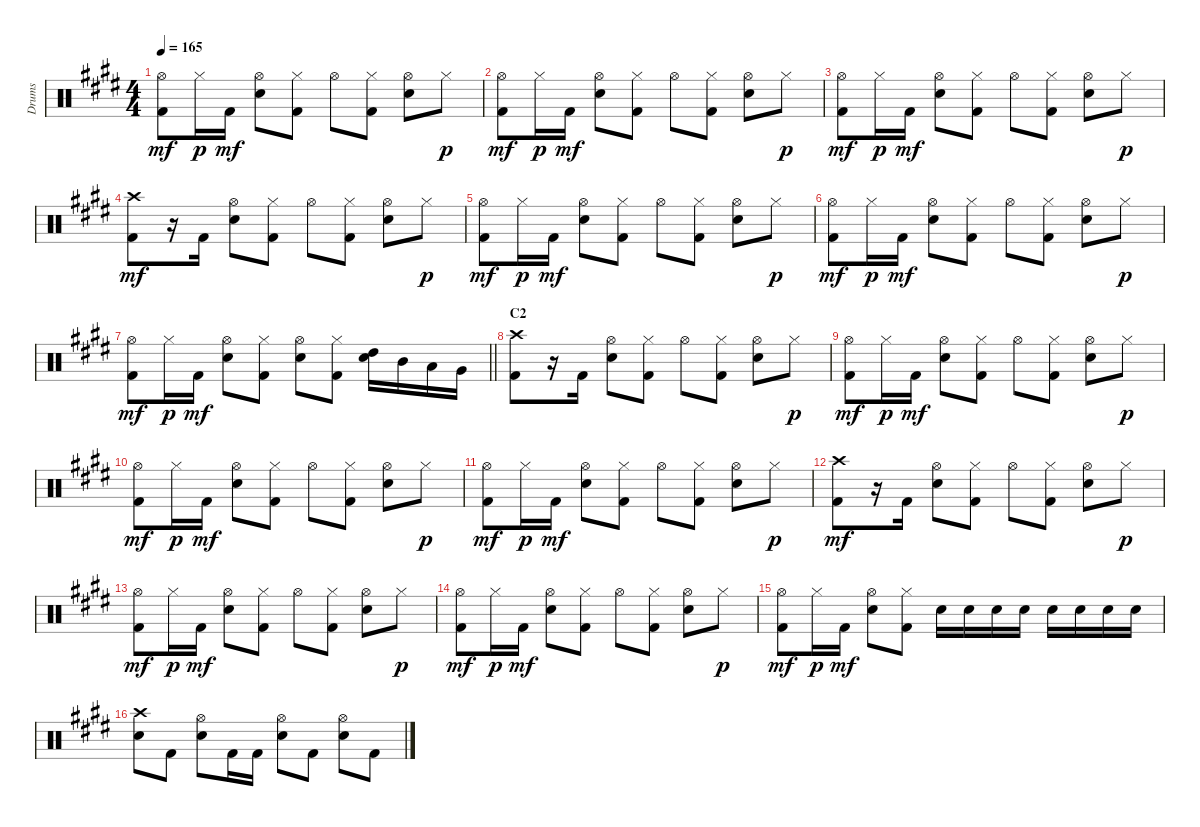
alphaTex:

\track ("Drums" "Drums") {instrument percussion}
\staff {score}
\articulation defaults
\ts (4 4)
\tempo 165
\clef neutral
\ks e
("Hi-Hat (open)" "Kick (hit) 2").8{dy mf} "Hi-Hat (closed)".16{dy p} "Kick (hit) 2".16{dy mf} ("Hi-Hat (open)" "Electric Snare (hit)").8 ("Hi-Hat (closed)" "Kick (hit) 2").8 "Hi-Hat (open)".8 ("Hi-Hat (closed)" "Kick (hit) 2").8 ("Hi-Hat (open)" "Electric Snare (hit)").8 "Hi-Hat (closed)".8{dy p} |
("Hi-Hat (open)" "Kick (hit) 2").8{dy mf} "Hi-Hat (closed)".16{dy p} "Kick (hit) 2".16{dy mf} ("Hi-Hat (open)" "Electric Snare (hit)").8 ("Hi-Hat (closed)" "Kick (hit) 2").8 "Hi-Hat (open)".8 ("Hi-Hat (closed)" "Kick (hit) 2").8 ("Hi-Hat (open)" "Electric Snare (hit)").8 "Hi-Hat (closed)".8{dy p} |
("Hi-Hat (open)" "Kick (hit) 2").8{dy mf} "Hi-Hat (closed)".16{dy p} "Kick (hit) 2".16{dy mf} ("Hi-Hat (open)" "Electric Snare (hit)").8 ("Hi-Hat (closed)" "Kick (hit) 2").8 "Hi-Hat (open)".8 ("Hi-Hat (closed)" "Kick (hit) 2").8 ("Hi-Hat (open)" "Electric Snare (hit)").8 "Hi-Hat (closed)".8{dy p} |
("Crash high (hit)" "Kick (hit) 2").8{dy mf} r.16 "Kick (hit) 2".16 ("Hi-Hat (open)" "Electric Snare (hit)").8 ("Hi-Hat (closed)" "Kick (hit) 2").8 "Hi-Hat (open)".8 ("Hi-Hat (closed)" "Kick (hit) 2").8 ("Hi-Hat (open)" "Electric Snare (hit)").8 "Hi-Hat (closed)".8{dy p} |
("Hi-Hat (open)" "Kick (hit) 2").8{dy mf} "Hi-Hat (closed)".16{dy p} "Kick (hit) 2".16{dy mf} ("Hi-Hat (open)" "Electric Snare (hit)").8 ("Hi-Hat (closed)" "Kick (hit) 2").8 "Hi-Hat (open)".8 ("Hi-Hat (closed)" "Kick (hit) 2").8 ("Hi-Hat (open)" "Electric Snare (hit)").8 "Hi-Hat (closed)".8{dy p} |
("Hi-Hat (open)" "Kick (hit) 2").8{dy mf} "Hi-Hat (closed)".16{dy p} "Kick (hit) 2".16{dy mf} ("Hi-Hat (open)" "Electric Snare (hit)").8 ("Hi-Hat (closed)" "Kick (hit) 2").8 "Hi-Hat (open)".8 ("Hi-Hat (closed)" "Kick (hit) 2").8 ("Hi-Hat (open)" "Electric Snare (hit)").8 "Hi-Hat (closed)".8{dy p} |
\barLineRight lightlight
("Hi-Hat (open)" "Kick (hit) 2").8{dy mf} "Hi-Hat (closed)".16{dy p} "Kick (hit) 2".16{dy mf} ("Hi-Hat (open)" "Electric Snare (hit)").8 ("Hi-Hat (closed)" "Kick (hit) 2").8 ("Hi-Hat (open)" "Electric Snare (hit)").8 ("Hi-Hat (closed)" "Kick (hit) 2").8 ("High Tom (hit)" "Electric Snare (hit)").16 "Mid Tom (hit)".16 "Low Tom (hit)".16 "Very Low Tom (hit)".16 |
\section ("" "C2")
("Crash high (hit)" "Kick (hit) 2").8 r.16 "Kick (hit) 2".16 ("Hi-Hat (open)" "Electric Snare (hit)").8 ("Hi-Hat (closed)" "Kick (hit) 2").8 "Hi-Hat (open)".8 ("Hi-Hat (closed)" "Kick (hit) 2").8 ("Hi-Hat (open)" "Electric Snare (hit)").8 "Hi-Hat (closed)".8{dy p} |
("Hi-Hat (open)" "Kick (hit) 2").8{dy mf} "Hi-Hat (closed)".16{dy p} "Kick (hit) 2".16{dy mf} ("Hi-Hat (open)" "Electric Snare (hit)").8 ("Hi-Hat (closed)" "Kick (hit) 2").8 "Hi-Hat (open)".8 ("Hi-Hat (closed)" "Kick (hit) 2").8 ("Hi-Hat (open)" "Electric Snare (hit)").8 "Hi-Hat (closed)".8{dy p} |
("Hi-Hat (open)" "Kick (hit) 2").8{dy mf} "Hi-Hat (closed)".16{dy p} "Kick (hit) 2".16{dy mf} ("Hi-Hat (open)" "Electric Snare (hit)").8 ("Hi-Hat (closed)" "Kick (hit) 2").8 "Hi-Hat (open)".8 ("Hi-Hat (closed)" "Kick (hit) 2").8 ("Hi-Hat (open)" "Electric Snare (hit)").8 "Hi-Hat (closed)".8{dy p} |
("Hi-Hat (open)" "Kick (hit) 2").8{dy mf} "Hi-Hat (closed)".16{dy p} "Kick (hit) 2".16{dy mf} ("Hi-Hat (open)" "Electric Snare (hit)").8 ("Hi-Hat (closed)" "Kick (hit) 2").8 "Hi-Hat (open)".8 ("Hi-Hat (closed)" "Kick (hit) 2").8 ("Hi-Hat (open)" "Electric Snare (hit)").8 "Hi-Hat (closed)".8{dy p} |
("Crash high (hit)" "Kick (hit) 2").8{dy mf} r.16 "Kick (hit) 2".16 ("Hi-Hat (open)" "Electric Snare (hit)").8 ("Hi-Hat (closed)" "Kick (hit) 2").8 "Hi-Hat (open)".8 ("Hi-Hat (closed)" "Kick (hit) 2").8 ("Hi-Hat (open)" "Electric Snare (hit)").8 "Hi-Hat (closed)".8{dy p} |
("Hi-Hat (open)" "Kick (hit) 2").8{dy mf} "Hi-Hat (closed)".16{dy p} "Kick (hit) 2".16{dy mf} ("Hi-Hat (open)" "Electric Snare (hit)").8 ("Hi-Hat (closed)" "Kick (hit) 2").8 "Hi-Hat (open)".8 ("Hi-Hat (closed)" "Kick (hit) 2").8 ("Hi-Hat (open)" "Electric Snare (hit)").8 "Hi-Hat (closed)".8{dy p} |
("Hi-Hat (open)" "Kick (hit) 2").8{dy mf} "Hi-Hat (closed)".16{dy p} "Kick (hit) 2".16{dy mf} ("Hi-Hat (open)" "Electric Snare (hit)").8 ("Hi-Hat (closed)" "Kick (hit) 2").8 "Hi-Hat (open)".8 ("Hi-Hat (closed)" "Kick (hit) 2").8 ("Hi-Hat (open)" "Electric Snare (hit)").8 "Hi-Hat (closed)".8{dy p} |
("Hi-Hat (open)" "Kick (hit) 2").8{dy mf} "Hi-Hat (closed)".16{dy p} "Kick (hit) 2".16{dy mf} ("Hi-Hat (open)" "Electric Snare (hit)").8 ("Hi-Hat (closed)" "Kick (hit) 2").8 "Electric Snare (hit)".16 "Electric Snare (hit)".16 "Electric Snare (hit)".16 "Electric Snare (hit)".16 "Electric Snare (hit)".16 "Electric Snare (hit)".16 "Electric Snare (hit)".16 "Electric Snare (hit)".16 |
("Crash high (hit)" "Electric Snare (hit)").8 "Kick (hit) 2".8 ("Hi-Hat (open)" "Electric Snare (hit)").8 "Kick (hit) 2".16 "Kick (hit) 2".16 ("Hi-Hat (open)" "Electric Snare (hit)").8 "Kick (hit) 2".8 ("Hi-Hat (open)" "Electric Snare (hit)").8 "Kick (hit) 2".8
